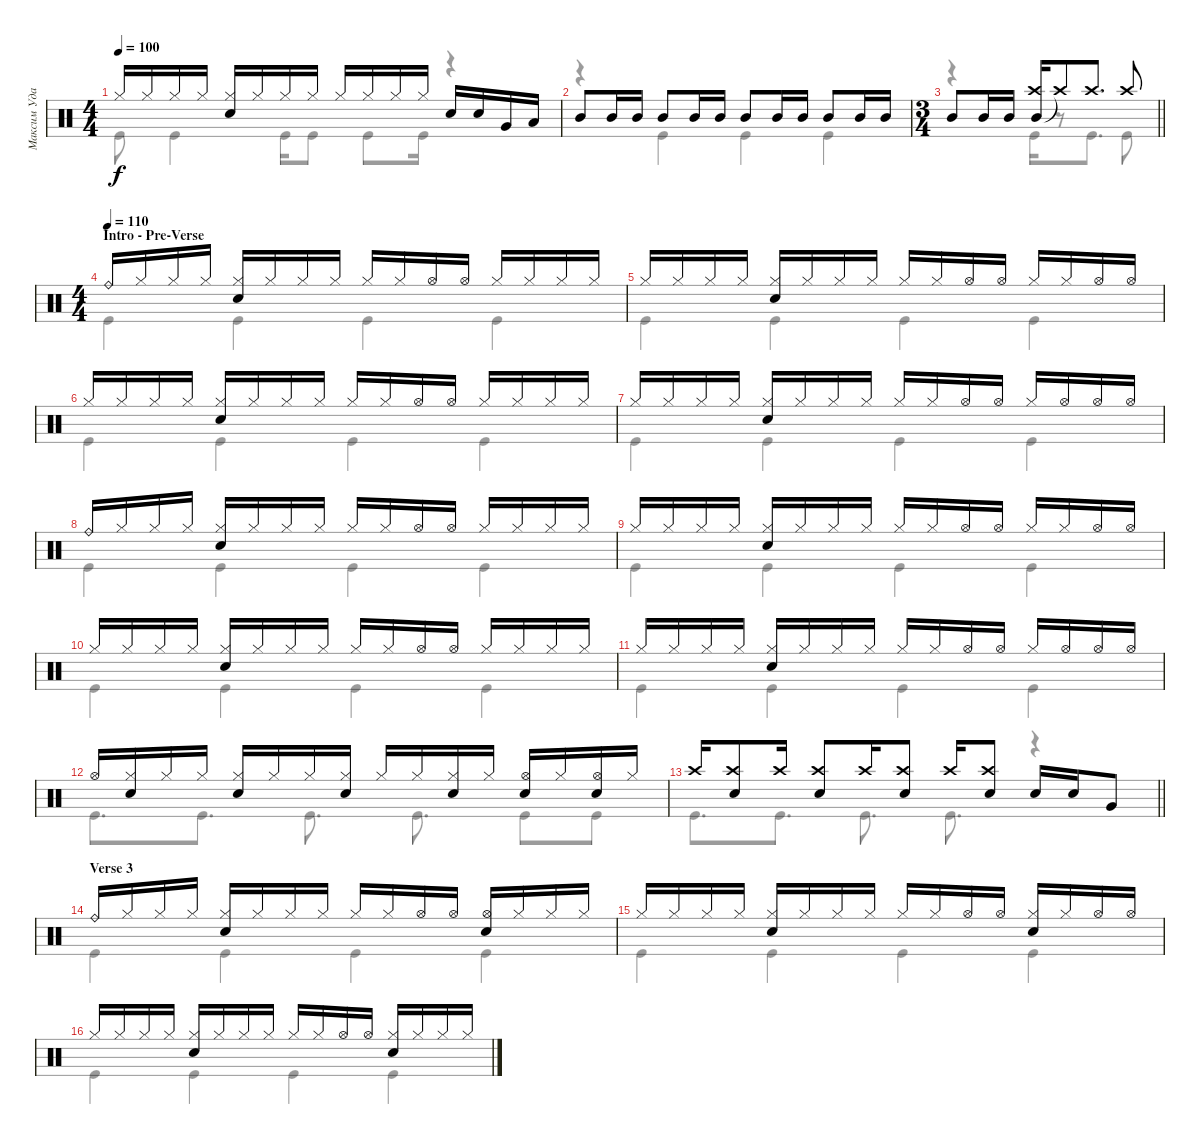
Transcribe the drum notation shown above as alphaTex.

\track ("Максим Удалов" "Максим Уда") {instrument percussion}
\staff {score}
\articulation defaults
\voice
\ts (4 4)
\tempo 100
\clef neutral
\ks c "Hi-Hat (closed)".16{dy f} "Hi-Hat (closed)".16 "Hi-Hat (closed)".16 "Hi-Hat (closed)".16
("Hi-Hat (closed)" "Snare (hit) 2").16 "Hi-Hat (closed)".16 "Hi-Hat (closed)".16 "Hi-Hat (closed)".16 "Hi-Hat (closed)".16 "Hi-Hat (closed)".16 "Hi-Hat (closed)".16 "Hi-Hat (closed)".16 "Snare (hit) 2".16 "Snare (hit) 2".16 "Very Low Tom (hit)".16 "Low Tom (hit)".16 |
"Mid Tom (hit)".8 "Mid Tom (hit)".16 "Mid Tom (hit)".16 "Mid Tom (hit)".8 "Mid Tom (hit)".16 "Mid Tom (hit)".16 "Mid Tom (hit)".8 "Mid Tom (hit)".16 "Mid Tom (hit)".16 "Mid Tom (hit)".8 "Mid Tom (hit)".16 "Mid Tom (hit)".16 |
\ts (3 4)
\barLineRight lightlight "Mid Tom (hit)".8 "Mid Tom (hit)".16 "Mid Tom (hit)".16
("Mid Tom (hit)" "Crash high (hit)").16 "Crash high (hit)"{t}.8 "Crash high (hit)".8{d} "Crash high (hit)".8 |
\ts (4 4)
\section ("" "Intro - Pre-Verse")
\tempo (110)
"Ride (bell)".16 "Hi-Hat (closed)".16 "Hi-Hat (closed)".16 "Hi-Hat (closed)".16 ("Hi-Hat (closed)" "Snare (hit) 2").16 "Hi-Hat (closed)".16 "Hi-Hat (closed)".16 "Hi-Hat (closed)".16 "Hi-Hat (closed)".16 "Hi-Hat (closed)".16 "Hi-Hat (open)".16 "Hi-Hat (open)".16 "Hi-Hat (closed)".16 "Hi-Hat (closed)".16 "Hi-Hat (closed)".16 "Hi-Hat (closed)".16 |
"Hi-Hat (closed)".16 "Hi-Hat (closed)".16 "Hi-Hat (closed)".16 "Hi-Hat (closed)".16 ("Hi-Hat (closed)" "Snare (hit) 2").16 "Hi-Hat (closed)".16 "Hi-Hat (closed)".16 "Hi-Hat (closed)".16 "Hi-Hat (closed)".16 "Hi-Hat (closed)".16 "Hi-Hat (open)".16 "Hi-Hat (open)".16 "Hi-Hat (closed)".16 "Hi-Hat (closed)".16 "Hi-Hat (open)".16 "Hi-Hat (open)".16 |
"Hi-Hat (closed)".16 "Hi-Hat (closed)".16 "Hi-Hat (closed)".16 "Hi-Hat (closed)".16 ("Hi-Hat (closed)" "Snare (hit) 2").16 "Hi-Hat (closed)".16 "Hi-Hat (closed)".16 "Hi-Hat (closed)".16 "Hi-Hat (closed)".16 "Hi-Hat (closed)".16 "Hi-Hat (open)".16 "Hi-Hat (open)".16 "Hi-Hat (closed)".16 "Hi-Hat (closed)".16 "Hi-Hat (closed)".16 "Hi-Hat (closed)".16 |
"Hi-Hat (closed)".16 "Hi-Hat (closed)".16 "Hi-Hat (closed)".16 "Hi-Hat (closed)".16 ("Hi-Hat (closed)" "Snare (hit) 2").16 "Hi-Hat (closed)".16 "Hi-Hat (closed)".16 "Hi-Hat (closed)".16 "Hi-Hat (closed)".16 "Hi-Hat (closed)".16 "Hi-Hat (open)".16 "Hi-Hat (open)".16 "Hi-Hat (closed)".16 "Hi-Hat (open)".16 "Hi-Hat (open)".16 "Hi-Hat (open)".16 |
"Ride (bell)".16 "Hi-Hat (closed)".16 "Hi-Hat (closed)".16 "Hi-Hat (closed)".16 ("Hi-Hat (closed)" "Snare (hit) 2").16 "Hi-Hat (closed)".16 "Hi-Hat (closed)".16 "Hi-Hat (closed)".16 "Hi-Hat (closed)".16 "Hi-Hat (closed)".16 "Hi-Hat (open)".16 "Hi-Hat (open)".16 "Hi-Hat (closed)".16 "Hi-Hat (closed)".16 "Hi-Hat (closed)".16 "Hi-Hat (closed)".16 |
"Hi-Hat (closed)".16 "Hi-Hat (closed)".16 "Hi-Hat (closed)".16 "Hi-Hat (closed)".16 ("Hi-Hat (closed)" "Snare (hit) 2").16 "Hi-Hat (closed)".16 "Hi-Hat (closed)".16 "Hi-Hat (closed)".16 "Hi-Hat (closed)".16 "Hi-Hat (closed)".16 "Hi-Hat (open)".16 "Hi-Hat (open)".16 "Hi-Hat (closed)".16 "Hi-Hat (closed)".16 "Hi-Hat (open)".16 "Hi-Hat (open)".16 |
"Hi-Hat (closed)".16 "Hi-Hat (closed)".16 "Hi-Hat (closed)".16 "Hi-Hat (closed)".16 ("Hi-Hat (closed)" "Snare (hit) 2").16 "Hi-Hat (closed)".16 "Hi-Hat (closed)".16 "Hi-Hat (closed)".16 "Hi-Hat (closed)".16 "Hi-Hat (closed)".16 "Hi-Hat (open)".16 "Hi-Hat (open)".16 "Hi-Hat (closed)".16 "Hi-Hat (closed)".16 "Hi-Hat (closed)".16 "Hi-Hat (closed)".16 |
"Hi-Hat (closed)".16 "Hi-Hat (closed)".16 "Hi-Hat (closed)".16 "Hi-Hat (closed)".16 ("Hi-Hat (closed)" "Snare (hit) 2").16 "Hi-Hat (closed)".16 "Hi-Hat (closed)".16 "Hi-Hat (closed)".16 "Hi-Hat (closed)".16 "Hi-Hat (closed)".16 "Hi-Hat (open)".16 "Hi-Hat (open)".16 "Hi-Hat (closed)".16 "Hi-Hat (open)".16 "Hi-Hat (open)".16 "Hi-Hat (open)".16 |
"Hi-Hat (open)".16 ("Hi-Hat (closed)" "Snare (hit) 2").16 "Hi-Hat (closed)".16 "Hi-Hat (closed)".16 ("Hi-Hat (closed)" "Snare (hit) 2").16 "Hi-Hat (closed)".16 "Hi-Hat (closed)".16 ("Hi-Hat (closed)" "Snare (hit) 2").16 "Hi-Hat (closed)".16 "Hi-Hat (closed)".16 ("Hi-Hat (closed)" "Snare (hit) 2").16 "Hi-Hat (closed)".16 ("Hi-Hat (open)" "Snare (hit) 2").16 "Hi-Hat (closed)".16 ("Hi-Hat (open)" "Snare (hit) 2").16 "Hi-Hat (closed)".16 |
\barLineRight lightlight "Crash high (hit)".16
("Crash high (hit)" "Snare (hit) 2").8 "Crash high (hit)".16 ("Crash high (hit)" "Snare (hit) 2").8 "Crash high (hit)".16 ("Crash high (hit)" "Snare (hit) 2").8 "Crash high (hit)".16 ("Crash high (hit)" "Snare (hit) 2").8 "Snare (hit) 2".16 "Snare (hit) 2".16 "Very Low Tom (hit)".8 |
\section ("" "Verse 3")
"Ride (bell)".16 "Hi-Hat (closed)".16 "Hi-Hat (closed)".16 "Hi-Hat (closed)".16 ("Hi-Hat (closed)" "Snare (hit) 2").16 "Hi-Hat (closed)".16 "Hi-Hat (closed)".16 "Hi-Hat (closed)".16 "Hi-Hat (closed)".16 "Hi-Hat (closed)".16 "Hi-Hat (open)".16 "Hi-Hat (open)".16 ("Hi-Hat (open)" "Snare (hit) 2").16 "Hi-Hat (closed)".16 "Hi-Hat (closed)".16 "Hi-Hat (closed)".16 |
"Hi-Hat (closed)".16 "Hi-Hat (closed)".16 "Hi-Hat (closed)".16 "Hi-Hat (closed)".16 ("Hi-Hat (closed)" "Snare (hit) 2").16 "Hi-Hat (closed)".16 "Hi-Hat (closed)".16 "Hi-Hat (closed)".16 "Hi-Hat (closed)".16 "Hi-Hat (closed)".16 "Hi-Hat (open)".16 "Hi-Hat (open)".16 ("Snare (hit) 2" "Hi-Hat (closed)").16 "Hi-Hat (closed)".16 "Hi-Hat (open)".16 "Hi-Hat (open)".16 |
"Hi-Hat (closed)".16 "Hi-Hat (closed)".16 "Hi-Hat (closed)".16 "Hi-Hat (closed)".16 ("Hi-Hat (closed)" "Snare (hit) 2").16 "Hi-Hat (closed)".16 "Hi-Hat (closed)".16 "Hi-Hat (closed)".16 "Hi-Hat (closed)".16 "Hi-Hat (closed)".16 "Hi-Hat (open)".16 "Hi-Hat (open)".16 ("Snare (hit) 2" "Hi-Hat (closed)").16 "Hi-Hat (closed)".16 "Hi-Hat (closed)".16 "Hi-Hat (closed)".16
\voice
\clef neutral
\ottava regular
\simile none
\ks c "Kick (hit)".8{dy f} "Kick (hit)".4 "Kick (hit)".16 "Kick (hit)".8 "Kick (hit)".8 "Kick (hit)".16
r.4 |
r.4 "Kick (hit)".4 "Kick (hit)".4 "Kick (hit)".4 |
\barLineRight lightlight
r.4 "Kick (hit)".16 r.8 "Kick (hit)".8{d} "Kick (hit)".8 |
"Kick (hit)".4 "Kick (hit)".4 "Kick (hit)".4 "Kick (hit)".4 |
"Kick (hit)".4 "Kick (hit)".4 "Kick (hit)".4 "Kick (hit)".4 |
"Kick (hit)".4 "Kick (hit)".4 "Kick (hit)".4 "Kick (hit)".4 |
"Kick (hit)".4 "Kick (hit)".4 "Kick (hit)".4 "Kick (hit)".4 |
"Kick (hit)".4 "Kick (hit)".4 "Kick (hit)".4 "Kick (hit)".4 |
"Kick (hit)".4 "Kick (hit)".4 "Kick (hit)".4 "Kick (hit)".4 |
"Kick (hit)".4 "Kick (hit)".4 "Kick (hit)".4 "Kick (hit)".4 |
"Kick (hit)".4 "Kick (hit)".4 "Kick (hit)".4 "Kick (hit)".4 |
"Kick (hit)".8{d} "Kick (hit)".8{d} "Kick (hit)".8{d} "Kick (hit)".8{d} "Kick (hit)".8 "Kick (hit)".8 |
\barLineRight lightlight "Kick (hit)".8{d} "Kick (hit)".8{d} "Kick (hit)".8{d} "Kick (hit)".8{d}
r.4 |
"Kick (hit)".4 "Kick (hit)".4 "Kick (hit)".4 "Kick (hit)".4 |
"Kick (hit)".4 "Kick (hit)".4 "Kick (hit)".4 "Kick (hit)".4 |
"Kick (hit)".4 "Kick (hit)".4 "Kick (hit)".4 "Kick (hit)".4
